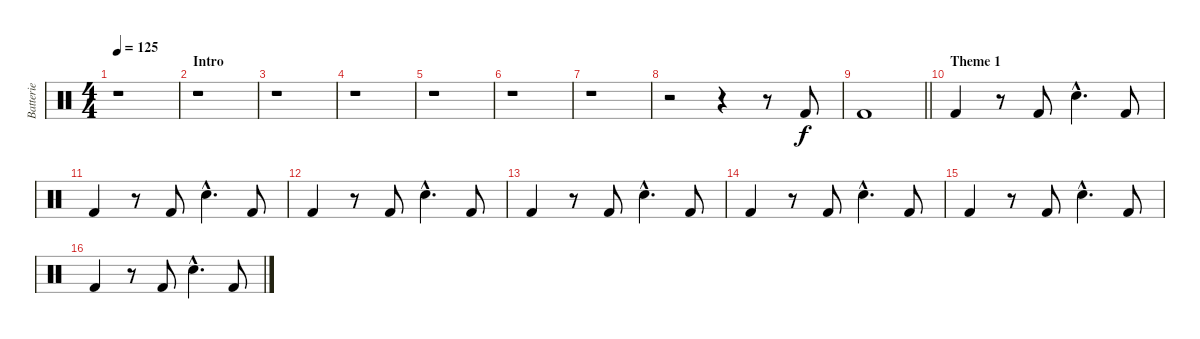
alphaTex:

\track ("Batterie" "Batterie") {instrument percussion}
\staff {score}
\articulation defaults
\ts (4 4)
\tempo 125
\clef neutral
\ks c
r.1{dy f} |
\section ("" "Intro")
r.1 |
r.1 |
r.1 |
r.1 |
r.1 |
r.1 |
r.2 r.4 r.8 "Kick (hit) 2".8 |
\barLineRight lightlight "Kick (hit) 2".1
|
\section ("" "Theme 1")
"Kick (hit) 2".4 r.8 "Kick (hit) 2".8 "Snare (hit) 2"{hac}.4{d} "Kick (hit) 2".8 |
"Kick (hit) 2".4 r.8 "Kick (hit) 2".8 "Snare (hit) 2"{hac}.4{d} "Kick (hit) 2".8 |
"Kick (hit) 2".4 r.8 "Kick (hit) 2".8 "Snare (hit) 2"{hac}.4{d} "Kick (hit) 2".8 |
"Kick (hit) 2".4 r.8 "Kick (hit) 2".8 "Snare (hit) 2"{hac}.4{d} "Kick (hit) 2".8 |
"Kick (hit) 2".4 r.8 "Kick (hit) 2".8 "Snare (hit) 2"{hac}.4{d} "Kick (hit) 2".8 |
"Kick (hit) 2".4 r.8 "Kick (hit) 2".8 "Snare (hit) 2"{hac}.4{d} "Kick (hit) 2".8 |
"Kick (hit) 2".4 r.8 "Kick (hit) 2".8 "Snare (hit) 2"{hac}.4{d} "Kick (hit) 2".8
